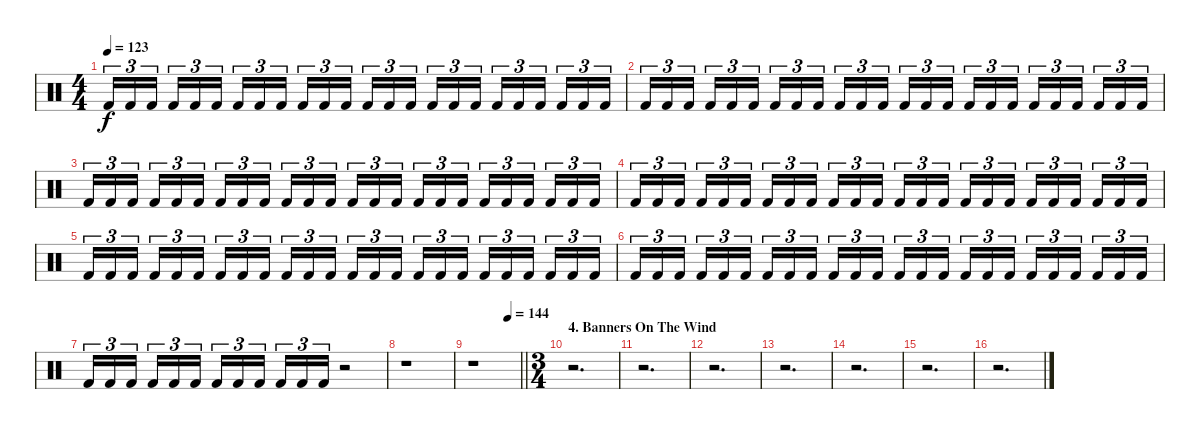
\track "" {instrument percussion}
\staff {score}
\articulation defaults
\ts (4 4)
\tempo 123
\clef neutral
\ks c "Kick (hit) 2".16{tu (3 2) dy f} "Kick (hit) 2".16{tu (3 2)} "Kick (hit) 2".16{tu (3 2) beam splitsecondary} "Kick (hit) 2".16{tu (3 2)} "Kick (hit) 2".16{tu (3 2)} "Kick (hit) 2".16{tu (3 2)} "Kick (hit) 2".16{tu (3 2)} "Kick (hit) 2".16{tu (3 2)} "Kick (hit) 2".16{tu (3 2) beam splitsecondary} "Kick (hit) 2".16{tu (3 2)} "Kick (hit) 2".16{tu (3 2)} "Kick (hit) 2".16{tu (3 2)} "Kick (hit) 2".16{tu (3 2)} "Kick (hit) 2".16{tu (3 2)} "Kick (hit) 2".16{tu (3 2) beam splitsecondary} "Kick (hit) 2".16{tu (3 2)} "Kick (hit) 2".16{tu (3 2)} "Kick (hit) 2".16{tu (3 2)} "Kick (hit) 2".16{tu (3 2)} "Kick (hit) 2".16{tu (3 2)} "Kick (hit) 2".16{tu (3 2) beam splitsecondary} "Kick (hit) 2".16{tu (3 2)} "Kick (hit) 2".16{tu (3 2)} "Kick (hit) 2".16{tu (3 2)}
|
"Kick (hit) 2".16{tu (3 2)} "Kick (hit) 2".16{tu (3 2)} "Kick (hit) 2".16{tu (3 2) beam splitsecondary} "Kick (hit) 2".16{tu (3 2)} "Kick (hit) 2".16{tu (3 2)} "Kick (hit) 2".16{tu (3 2)} "Kick (hit) 2".16{tu (3 2)} "Kick (hit) 2".16{tu (3 2)} "Kick (hit) 2".16{tu (3 2) beam splitsecondary} "Kick (hit) 2".16{tu (3 2)} "Kick (hit) 2".16{tu (3 2)} "Kick (hit) 2".16{tu (3 2)} "Kick (hit) 2".16{tu (3 2)} "Kick (hit) 2".16{tu (3 2)} "Kick (hit) 2".16{tu (3 2) beam splitsecondary} "Kick (hit) 2".16{tu (3 2)} "Kick (hit) 2".16{tu (3 2)} "Kick (hit) 2".16{tu (3 2)} "Kick (hit) 2".16{tu (3 2)} "Kick (hit) 2".16{tu (3 2)} "Kick (hit) 2".16{tu (3 2) beam splitsecondary} "Kick (hit) 2".16{tu (3 2)} "Kick (hit) 2".16{tu (3 2)} "Kick (hit) 2".16{tu (3 2)} |
"Kick (hit) 2".16{tu (3 2)} "Kick (hit) 2".16{tu (3 2)} "Kick (hit) 2".16{tu (3 2) beam splitsecondary} "Kick (hit) 2".16{tu (3 2)} "Kick (hit) 2".16{tu (3 2)} "Kick (hit) 2".16{tu (3 2)} "Kick (hit) 2".16{tu (3 2)} "Kick (hit) 2".16{tu (3 2)} "Kick (hit) 2".16{tu (3 2) beam splitsecondary} "Kick (hit) 2".16{tu (3 2)} "Kick (hit) 2".16{tu (3 2)} "Kick (hit) 2".16{tu (3 2)} "Kick (hit) 2".16{tu (3 2)} "Kick (hit) 2".16{tu (3 2)} "Kick (hit) 2".16{tu (3 2) beam splitsecondary} "Kick (hit) 2".16{tu (3 2)} "Kick (hit) 2".16{tu (3 2)} "Kick (hit) 2".16{tu (3 2)} "Kick (hit) 2".16{tu (3 2)} "Kick (hit) 2".16{tu (3 2)} "Kick (hit) 2".16{tu (3 2) beam splitsecondary} "Kick (hit) 2".16{tu (3 2)} "Kick (hit) 2".16{tu (3 2)} "Kick (hit) 2".16{tu (3 2)} |
"Kick (hit) 2".16{tu (3 2)} "Kick (hit) 2".16{tu (3 2)} "Kick (hit) 2".16{tu (3 2) beam splitsecondary} "Kick (hit) 2".16{tu (3 2)} "Kick (hit) 2".16{tu (3 2)} "Kick (hit) 2".16{tu (3 2)} "Kick (hit) 2".16{tu (3 2)} "Kick (hit) 2".16{tu (3 2)} "Kick (hit) 2".16{tu (3 2) beam splitsecondary} "Kick (hit) 2".16{tu (3 2)} "Kick (hit) 2".16{tu (3 2)} "Kick (hit) 2".16{tu (3 2)} "Kick (hit) 2".16{tu (3 2)} "Kick (hit) 2".16{tu (3 2)} "Kick (hit) 2".16{tu (3 2) beam splitsecondary} "Kick (hit) 2".16{tu (3 2)} "Kick (hit) 2".16{tu (3 2)} "Kick (hit) 2".16{tu (3 2)} "Kick (hit) 2".16{tu (3 2)} "Kick (hit) 2".16{tu (3 2)} "Kick (hit) 2".16{tu (3 2) beam splitsecondary} "Kick (hit) 2".16{tu (3 2)} "Kick (hit) 2".16{tu (3 2)} "Kick (hit) 2".16{tu (3 2)} |
"Kick (hit) 2".16{tu (3 2)} "Kick (hit) 2".16{tu (3 2)} "Kick (hit) 2".16{tu (3 2) beam splitsecondary} "Kick (hit) 2".16{tu (3 2)} "Kick (hit) 2".16{tu (3 2)} "Kick (hit) 2".16{tu (3 2)} "Kick (hit) 2".16{tu (3 2)} "Kick (hit) 2".16{tu (3 2)} "Kick (hit) 2".16{tu (3 2) beam splitsecondary} "Kick (hit) 2".16{tu (3 2)} "Kick (hit) 2".16{tu (3 2)} "Kick (hit) 2".16{tu (3 2)} "Kick (hit) 2".16{tu (3 2)} "Kick (hit) 2".16{tu (3 2)} "Kick (hit) 2".16{tu (3 2) beam splitsecondary} "Kick (hit) 2".16{tu (3 2)} "Kick (hit) 2".16{tu (3 2)} "Kick (hit) 2".16{tu (3 2)} "Kick (hit) 2".16{tu (3 2)} "Kick (hit) 2".16{tu (3 2)} "Kick (hit) 2".16{tu (3 2) beam splitsecondary} "Kick (hit) 2".16{tu (3 2)} "Kick (hit) 2".16{tu (3 2)} "Kick (hit) 2".16{tu (3 2)} |
"Kick (hit) 2".16{tu (3 2)} "Kick (hit) 2".16{tu (3 2)} "Kick (hit) 2".16{tu (3 2) beam splitsecondary} "Kick (hit) 2".16{tu (3 2)} "Kick (hit) 2".16{tu (3 2)} "Kick (hit) 2".16{tu (3 2)} "Kick (hit) 2".16{tu (3 2)} "Kick (hit) 2".16{tu (3 2)} "Kick (hit) 2".16{tu (3 2) beam splitsecondary} "Kick (hit) 2".16{tu (3 2)} "Kick (hit) 2".16{tu (3 2)} "Kick (hit) 2".16{tu (3 2)} "Kick (hit) 2".16{tu (3 2)} "Kick (hit) 2".16{tu (3 2)} "Kick (hit) 2".16{tu (3 2) beam splitsecondary} "Kick (hit) 2".16{tu (3 2)} "Kick (hit) 2".16{tu (3 2)} "Kick (hit) 2".16{tu (3 2)} "Kick (hit) 2".16{tu (3 2)} "Kick (hit) 2".16{tu (3 2)} "Kick (hit) 2".16{tu (3 2) beam splitsecondary} "Kick (hit) 2".16{tu (3 2)} "Kick (hit) 2".16{tu (3 2)} "Kick (hit) 2".16{tu (3 2)} |
"Kick (hit) 2".16{tu (3 2)} "Kick (hit) 2".16{tu (3 2)} "Kick (hit) 2".16{tu (3 2) beam splitsecondary} "Kick (hit) 2".16{tu (3 2)} "Kick (hit) 2".16{tu (3 2)} "Kick (hit) 2".16{tu (3 2)} "Kick (hit) 2".16{tu (3 2)} "Kick (hit) 2".16{tu (3 2)} "Kick (hit) 2".16{tu (3 2) beam splitsecondary} "Kick (hit) 2".16{tu (3 2)} "Kick (hit) 2".16{tu (3 2)} "Kick (hit) 2".16{tu (3 2)} r.2 |
r.1 |
\tempo (144 0.75)
\barLineRight lightlight
r.1 |
\ts (3 4)
\section ("" "4. Banners On The Wind")
r.2{d} |
r.2{d} |
r.2{d} |
r.2{d} |
r.2{d} |
r.2{d} |
r.2{d}
